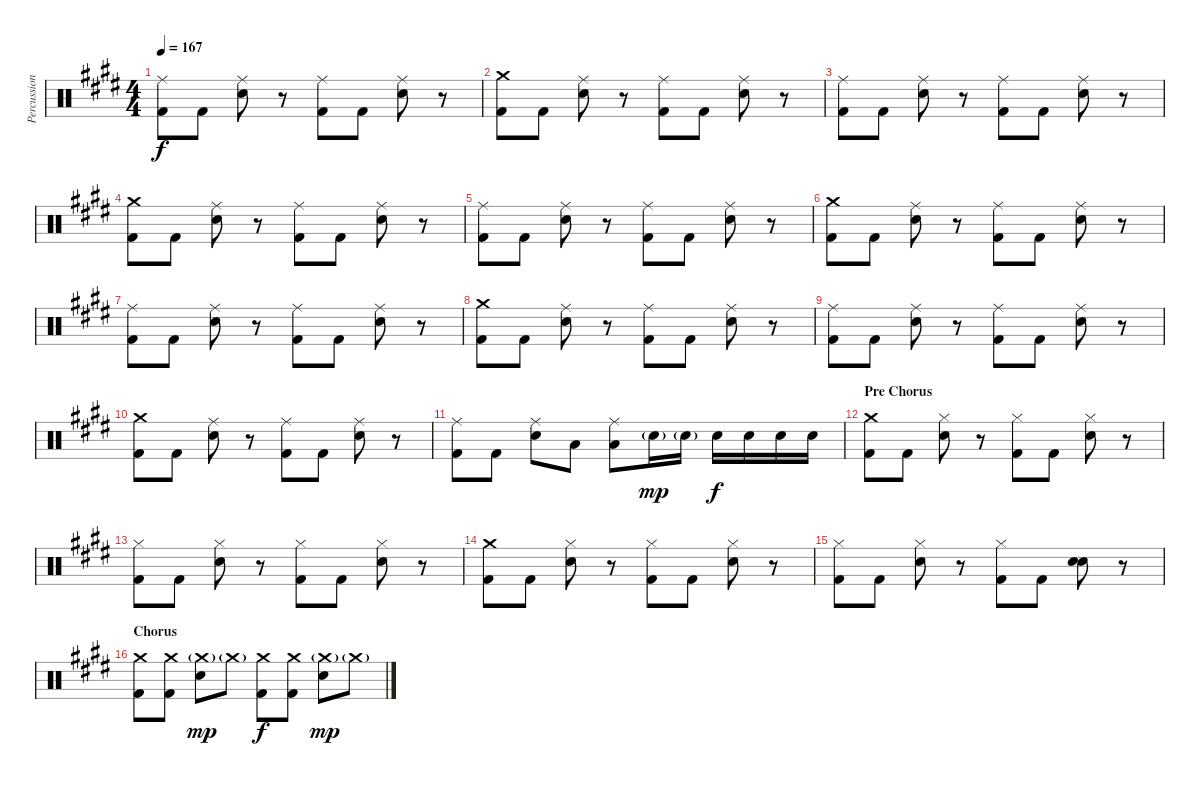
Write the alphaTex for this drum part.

\track ("Percussion" "Percussion") {instrument percussion}
\staff {score}
\articulation defaults
\ts (4 4)
\tempo 167
\clef neutral
\ks e
("Ride (middle)" "Kick (hit) 2").8{dy f} "Kick (hit) 2".8 ("Ride (middle)" "Electric Snare (hit)").8 r.8 ("Ride (middle)" "Kick (hit) 2").8 "Kick (hit) 2".8 ("Ride (middle)" "Electric Snare (hit)").8 r.8 |
("Crash medium (hit)" "Kick (hit) 2").8 "Kick (hit) 2".8 ("Ride (middle)" "Electric Snare (hit)").8 r.8 ("Ride (middle)" "Kick (hit) 2").8 "Kick (hit) 2".8 ("Ride (middle)" "Electric Snare (hit)").8 r.8 |
("Ride (middle)" "Kick (hit) 2").8 "Kick (hit) 2".8 ("Ride (middle)" "Electric Snare (hit)").8 r.8 ("Ride (middle)" "Kick (hit) 2").8 "Kick (hit) 2".8 ("Ride (middle)" "Electric Snare (hit)").8 r.8 |
("Crash medium (hit)" "Kick (hit) 2").8 "Kick (hit) 2".8 ("Ride (middle)" "Electric Snare (hit)").8 r.8 ("Ride (middle)" "Kick (hit) 2").8 "Kick (hit) 2".8 ("Ride (middle)" "Electric Snare (hit)").8 r.8 |
("Ride (middle)" "Kick (hit) 2").8 "Kick (hit) 2".8 ("Ride (middle)" "Electric Snare (hit)").8 r.8 ("Ride (middle)" "Kick (hit) 2").8 "Kick (hit) 2".8 ("Ride (middle)" "Electric Snare (hit)").8 r.8 |
("Crash medium (hit)" "Kick (hit) 2").8 "Kick (hit) 2".8 ("Ride (middle)" "Electric Snare (hit)").8 r.8 ("Ride (middle)" "Kick (hit) 2").8 "Kick (hit) 2".8 ("Ride (middle)" "Electric Snare (hit)").8 r.8 |
("Ride (middle)" "Kick (hit) 2").8 "Kick (hit) 2".8 ("Ride (middle)" "Electric Snare (hit)").8 r.8 ("Ride (middle)" "Kick (hit) 2").8 "Kick (hit) 2".8 ("Ride (middle)" "Electric Snare (hit)").8 r.8 |
("Crash medium (hit)" "Kick (hit) 2").8 "Kick (hit) 2".8 ("Ride (middle)" "Electric Snare (hit)").8 r.8 ("Ride (middle)" "Kick (hit) 2").8 "Kick (hit) 2".8 ("Ride (middle)" "Electric Snare (hit)").8 r.8 |
("Ride (middle)" "Kick (hit) 2").8 "Kick (hit) 2".8 ("Ride (middle)" "Electric Snare (hit)").8 r.8 ("Ride (middle)" "Kick (hit) 2").8 "Kick (hit) 2".8 ("Ride (middle)" "Electric Snare (hit)").8 r.8 |
("Crash medium (hit)" "Kick (hit) 2").8 "Kick (hit) 2".8 ("Ride (middle)" "Electric Snare (hit)").8 r.8 ("Ride (middle)" "Kick (hit) 2").8 "Kick (hit) 2".8 ("Ride (middle)" "Electric Snare (hit)").8 r.8 |
("Ride (middle)" "Kick (hit) 2").8 "Kick (hit) 2".8 ("Ride (middle)" "Electric Snare (hit)").8 "Low Tom (hit)".8 ("Ride (middle)" "Low Tom (hit)").8 "Electric Snare (hit)"{g}.16{dy mp} "Electric Snare (hit)"{g}.16 "Electric Snare (hit)".16{dy f} "Electric Snare (hit)".16 "Electric Snare (hit)".16 "Electric Snare (hit)".16 |
\section ("" "Pre Chorus")
("Crash medium (hit)" "Kick (hit) 2").8 "Kick (hit) 2".8 ("Hi-Hat (closed)" "Electric Snare (hit)").8 r.8 ("Hi-Hat (closed)" "Kick (hit) 2").8 "Kick (hit) 2".8 ("Hi-Hat (closed)" "Electric Snare (hit)").8 r.8 |
("Hi-Hat (closed)" "Kick (hit) 2").8 "Kick (hit) 2".8 ("Hi-Hat (closed)" "Electric Snare (hit)").8 r.8 ("Hi-Hat (closed)" "Kick (hit) 2").8 "Kick (hit) 2".8 ("Hi-Hat (closed)" "Electric Snare (hit)").8 r.8 |
("Crash medium (hit)" "Kick (hit) 2").8 "Kick (hit) 2".8 ("Hi-Hat (closed)" "Electric Snare (hit)").8 r.8 ("Hi-Hat (closed)" "Kick (hit) 2").8 "Kick (hit) 2".8 ("Hi-Hat (closed)" "Electric Snare (hit)").8 r.8 |
("Hi-Hat (closed)" "Kick (hit) 2").8 "Kick (hit) 2".8 ("Hi-Hat (closed)" "Electric Snare (hit)").8 r.8 ("Hi-Hat (closed)" "Kick (hit) 2").8 "Kick (hit) 2".8 ("Electric Snare (hit)" "Electric Snare (hit)").8{bd 240} r.8 |
\section ("" "Chorus")
("Crash medium (hit)" "Kick (hit) 2").8 ("Crash medium (hit)" "Kick (hit) 2").8 ("Crash medium (hit)"{g} "Electric Snare (hit)").8{dy mp} "Crash medium (hit)"{g}.8 ("Crash medium (hit)" "Kick (hit) 2").8{dy f} ("Crash medium (hit)" "Kick (hit) 2").8 ("Crash medium (hit)"{g} "Electric Snare (hit)").8{dy mp} "Crash medium (hit)"{g}.8
